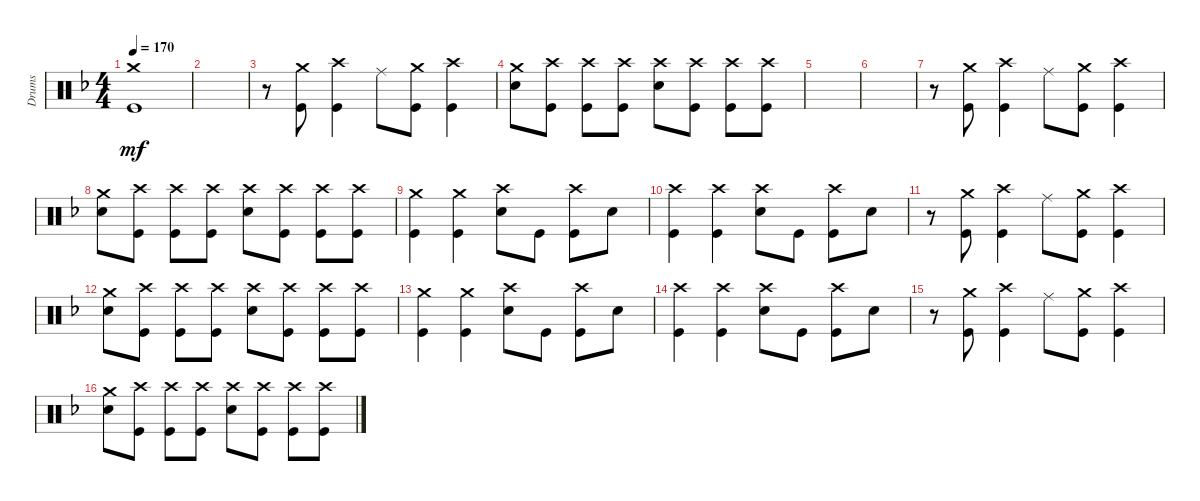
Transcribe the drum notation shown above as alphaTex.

\track ("Drums" "Drums") {instrument percussion}
\staff {score}
\articulation defaults
\ts (4 4)
\tempo 170
\clef neutral
\ks f
("Kick (hit)" "Crash medium (hit)").1{dy mf} |
|
r.8 ("Kick (hit)" "Crash medium (hit)").8 ("Kick (hit)" "Crash high (hit)").4 "Ride (middle)".8 ("Kick (hit)" "Crash medium (hit)").8 ("Kick (hit)" "Crash high (hit)").4 |
("Snare (hit) 2" "Crash medium (hit)").8 ("Kick (hit)" "Crash high (hit)").8 ("Kick (hit)" "Crash high (hit)").8 ("Kick (hit)" "Crash high (hit)").8 ("Snare (hit) 2" "Crash high (hit)").8 ("Kick (hit)" "Crash high (hit)").8 ("Kick (hit)" "Crash high (hit)").8 ("Kick (hit)" "Crash high (hit)").8 |
|
|
r.8 ("Kick (hit)" "Crash medium (hit)").8 ("Kick (hit)" "Crash high (hit)").4 "Ride (middle)".8 ("Kick (hit)" "Crash medium (hit)").8 ("Kick (hit)" "Crash high (hit)").4 |
("Snare (hit) 2" "Crash medium (hit)").8 ("Kick (hit)" "Crash high (hit)").8 ("Kick (hit)" "Crash high (hit)").8 ("Kick (hit)" "Crash high (hit)").8 ("Snare (hit) 2" "Crash high (hit)").8 ("Kick (hit)" "Crash high (hit)").8 ("Kick (hit)" "Crash high (hit)").8 ("Kick (hit)" "Crash high (hit)").8 |
("Kick (hit)" "Crash medium (hit)").4 ("Kick (hit)" "Crash medium (hit)").4 ("Snare (hit) 2" "Crash high (hit)").8 "Kick (hit)".8 ("Kick (hit)" "Crash high (hit)").8 "Snare (hit) 2".8 |
("Kick (hit)" "Crash high (hit)").4 ("Kick (hit)" "Crash high (hit)").4 ("Snare (hit) 2" "Crash high (hit)").8 "Kick (hit)".8 ("Kick (hit)" "Crash high (hit)").8 "Snare (hit) 2".8 |
r.8 ("Kick (hit)" "Crash medium (hit)").8 ("Kick (hit)" "Crash high (hit)").4 "Ride (middle)".8 ("Kick (hit)" "Crash medium (hit)").8 ("Kick (hit)" "Crash high (hit)").4 |
("Snare (hit) 2" "Crash medium (hit)").8 ("Kick (hit)" "Crash high (hit)").8 ("Kick (hit)" "Crash high (hit)").8 ("Kick (hit)" "Crash high (hit)").8 ("Snare (hit) 2" "Crash high (hit)").8 ("Kick (hit)" "Crash high (hit)").8 ("Kick (hit)" "Crash high (hit)").8 ("Kick (hit)" "Crash high (hit)").8 |
("Kick (hit)" "Crash medium (hit)").4 ("Kick (hit)" "Crash medium (hit)").4 ("Snare (hit) 2" "Crash high (hit)").8 "Kick (hit)".8 ("Kick (hit)" "Crash high (hit)").8 "Snare (hit) 2".8 |
("Kick (hit)" "Crash high (hit)").4 ("Kick (hit)" "Crash high (hit)").4 ("Snare (hit) 2" "Crash high (hit)").8 "Kick (hit)".8 ("Kick (hit)" "Crash high (hit)").8 "Snare (hit) 2".8 |
r.8 ("Kick (hit)" "Crash medium (hit)").8 ("Kick (hit)" "Crash high (hit)").4 "Ride (middle)".8 ("Kick (hit)" "Crash medium (hit)").8 ("Kick (hit)" "Crash high (hit)").4 |
("Snare (hit) 2" "Crash medium (hit)").8 ("Kick (hit)" "Crash high (hit)").8 ("Kick (hit)" "Crash high (hit)").8 ("Kick (hit)" "Crash high (hit)").8 ("Snare (hit) 2" "Crash high (hit)").8 ("Kick (hit)" "Crash high (hit)").8 ("Kick (hit)" "Crash high (hit)").8 ("Kick (hit)" "Crash high (hit)").8
